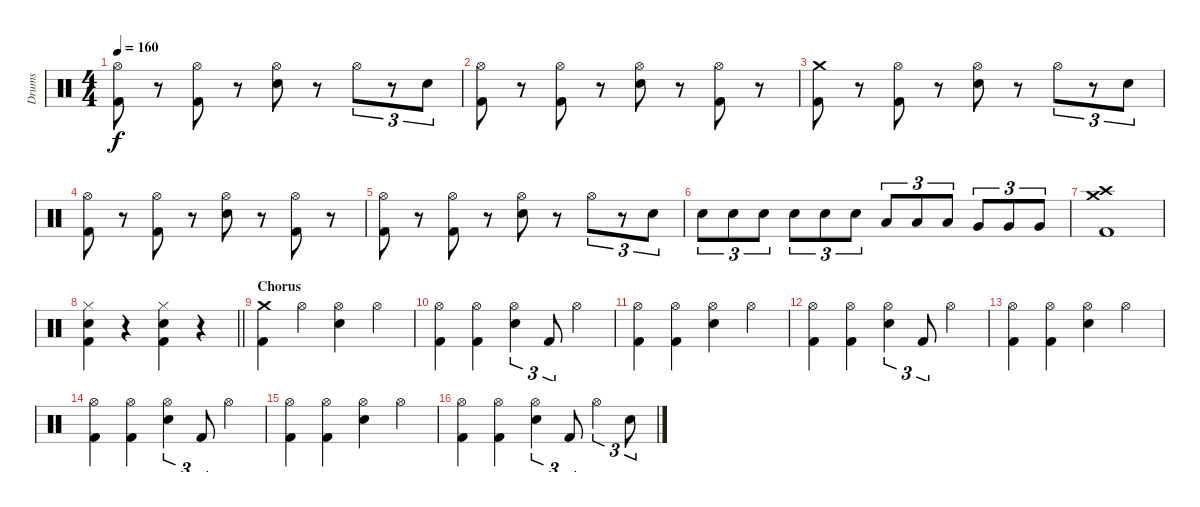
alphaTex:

\track ("Drums" "Drums") {instrument percussion}
\staff {score}
\articulation defaults
\ts (4 4)
\tempo 160
\clef neutral
\ks c
("Hi-Hat (open)" "Kick (hit) 2").8{dy f} r.8 ("Hi-Hat (open)" "Kick (hit) 2").8 r.8 ("Hi-Hat (open)" "Electric Snare (hit)").8 r.8 "Hi-Hat (open)".8{tu (3 2)} r.8{tu (3 2)} "Electric Snare (hit)".8{tu (3 2)} |
("Hi-Hat (open)" "Kick (hit) 2").8 r.8 ("Hi-Hat (open)" "Kick (hit) 2").8 r.8 ("Hi-Hat (open)" "Electric Snare (hit)").8 r.8 ("Hi-Hat (open)" "Kick (hit) 2").8 r.8 |
("Crash medium (hit)" "Kick (hit) 2").8 r.8 ("Hi-Hat (open)" "Kick (hit) 2").8 r.8 ("Hi-Hat (open)" "Electric Snare (hit)").8 r.8 "Hi-Hat (open)".8{tu (3 2)} r.8{tu (3 2)} "Electric Snare (hit)".8{tu (3 2)} |
("Hi-Hat (open)" "Kick (hit) 2").8 r.8 ("Hi-Hat (open)" "Kick (hit) 2").8 r.8 ("Hi-Hat (open)" "Electric Snare (hit)").8 r.8 ("Hi-Hat (open)" "Kick (hit) 2").8 r.8 |
("Hi-Hat (open)" "Kick (hit) 2").8 r.8 ("Hi-Hat (open)" "Kick (hit) 2").8 r.8 ("Hi-Hat (open)" "Electric Snare (hit)").8 r.8 "Hi-Hat (open)".8{tu (3 2)} r.8{tu (3 2)} "Electric Snare (hit)".8{tu (3 2)} |
"Electric Snare (hit)".8{tu (3 2)} "Electric Snare (hit)".8{tu (3 2)} "Electric Snare (hit)".8{tu (3 2)} "Electric Snare (hit)".8{tu (3 2)} "Electric Snare (hit)".8{tu (3 2)} "Electric Snare (hit)".8{tu (3 2)} "Low Tom (hit)".8{tu (3 2)} "Low Tom (hit)".8{tu (3 2)} "Low Tom (hit)".8{tu (3 2)} "Very Low Tom (hit)".8{tu (3 2)} "Very Low Tom (hit)".8{tu (3 2)} "Very Low Tom (hit)".8{tu (3 2)} |
("Crash medium (hit)" "Crash high (hit)" "Kick (hit) 2").1 |
\barLineRight lightlight
("Hi-Hat (closed)" "Electric Snare (hit)" "Kick (hit) 2").4 r.4 ("Hi-Hat (closed)" "Electric Snare (hit)" "Kick (hit) 2").4 r.4 |
\section ("" "Chorus")
("Crash medium (hit)" "Kick (hit) 2").4 "Hi-Hat (open)".4 ("Hi-Hat (open)" "Electric Snare (hit)").4 "Hi-Hat (open)".4 |
("Hi-Hat (open)" "Kick (hit) 2").4 ("Hi-Hat (open)" "Kick (hit) 2").4 ("Hi-Hat (open)" "Electric Snare (hit)").4{tu (3 2)} "Kick (hit) 2".8{tu (3 2)} "Hi-Hat (open)".4 |
("Hi-Hat (open)" "Kick (hit) 2").4 ("Hi-Hat (open)" "Kick (hit) 2").4 ("Hi-Hat (open)" "Electric Snare (hit)").4 "Hi-Hat (open)".4 |
("Hi-Hat (open)" "Kick (hit) 2").4 ("Hi-Hat (open)" "Kick (hit) 2").4 ("Hi-Hat (open)" "Electric Snare (hit)").4{tu (3 2)} "Kick (hit) 2".8{tu (3 2)} "Hi-Hat (open)".4 |
("Hi-Hat (open)" "Kick (hit) 2").4 ("Hi-Hat (open)" "Kick (hit) 2").4 ("Hi-Hat (open)" "Electric Snare (hit)").4 "Hi-Hat (open)".4 |
("Hi-Hat (open)" "Kick (hit) 2").4 ("Hi-Hat (open)" "Kick (hit) 2").4 ("Hi-Hat (open)" "Electric Snare (hit)").4{tu (3 2)} "Kick (hit) 2".8{tu (3 2)} "Hi-Hat (open)".4 |
("Hi-Hat (open)" "Kick (hit) 2").4 ("Hi-Hat (open)" "Kick (hit) 2").4 ("Hi-Hat (open)" "Electric Snare (hit)").4 "Hi-Hat (open)".4 |
("Hi-Hat (open)" "Kick (hit) 2").4 ("Hi-Hat (open)" "Kick (hit) 2").4 ("Hi-Hat (open)" "Electric Snare (hit)").4{tu (3 2)} "Kick (hit) 2".8{tu (3 2)} "Hi-Hat (open)".4{tu (3 2)} "Electric Snare (hit)".8{tu (3 2)}
